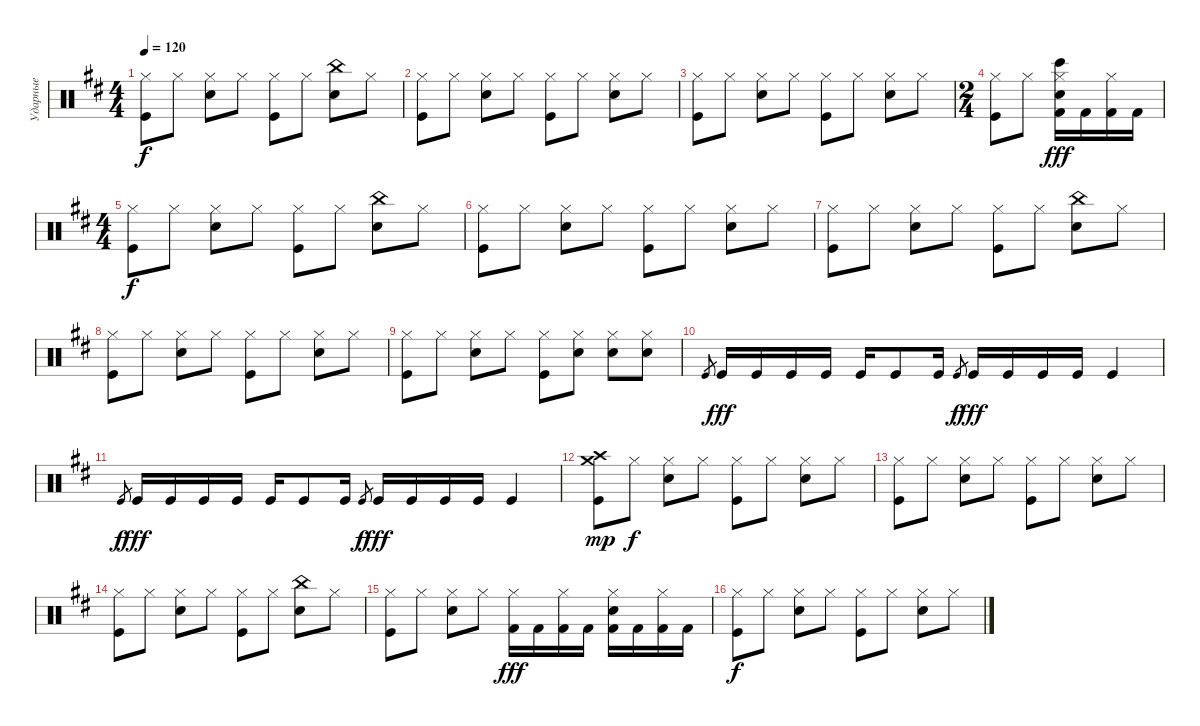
\track ("Ударные" "Ударные") {instrument percussion}
\staff {score}
\articulation defaults
\ts (4 4)
\tempo 120
\clef neutral
\ks bminor
("Hi-Hat (closed)" "Kick (hit)").8{dy f} "Hi-Hat (closed)".8 ("Hi-Hat (closed)" "Snare (hit) 2").8 "Hi-Hat (closed)".8 ("Hi-Hat (closed)" "Kick (hit)").8 "Hi-Hat (closed)".8 ("China (hit)" "Snare (hit) 2").8{balance 14} "Hi-Hat (closed)".8{balance 8} |
("Hi-Hat (closed)" "Kick (hit)").8 "Hi-Hat (closed)".8 ("Hi-Hat (closed)" "Snare (hit) 2").8 "Hi-Hat (closed)".8 ("Hi-Hat (closed)" "Kick (hit)").8 "Hi-Hat (closed)".8 ("Hi-Hat (closed)" "Snare (hit) 2").8 "Hi-Hat (closed)".8 |
("Hi-Hat (closed)" "Kick (hit)").8 "Hi-Hat (closed)".8 ("Hi-Hat (closed)" "Snare (hit) 2").8 "Hi-Hat (closed)".8 ("Hi-Hat (closed)" "Kick (hit)").8 "Hi-Hat (closed)".8 ("Hi-Hat (closed)" "Snare (hit) 2").8 "Hi-Hat (closed)".8 |
\ts (2 4)
("Hi-Hat (closed)" "Kick (hit)").8 "Hi-Hat (closed)".8 ("Hi-Hat (closed)" "Snare (hit) 2" "Bongo High (hit)" "Kick (hit) 2").16{dy fff} "Kick (hit) 2".16 ("Hi-Hat (closed)" "Kick (hit) 2").16 "Kick (hit) 2".16 |
\ts (4 4)
("Hi-Hat (closed)" "Kick (hit)").8{dy f} "Hi-Hat (closed)".8 ("Hi-Hat (closed)" "Snare (hit) 2").8 "Hi-Hat (closed)".8 ("Hi-Hat (closed)" "Kick (hit)").8 "Hi-Hat (closed)".8 ("China (hit)" "Snare (hit) 2").8{balance 14} "Hi-Hat (closed)".8{balance 8} |
("Hi-Hat (closed)" "Kick (hit)").8 "Hi-Hat (closed)".8 ("Hi-Hat (closed)" "Snare (hit) 2").8 "Hi-Hat (closed)".8 ("Hi-Hat (closed)" "Kick (hit)").8 "Hi-Hat (closed)".8 ("Hi-Hat (closed)" "Snare (hit) 2").8 "Hi-Hat (closed)".8 |
("Hi-Hat (closed)" "Kick (hit)").8 "Hi-Hat (closed)".8 ("Hi-Hat (closed)" "Snare (hit) 2").8 "Hi-Hat (closed)".8 ("Hi-Hat (closed)" "Kick (hit)").8 "Hi-Hat (closed)".8 ("China (hit)" "Snare (hit) 2").8 "Hi-Hat (closed)".8 |
("Hi-Hat (closed)" "Kick (hit)").8 "Hi-Hat (closed)".8 ("Hi-Hat (closed)" "Snare (hit) 2").8 "Hi-Hat (closed)".8 ("Hi-Hat (closed)" "Kick (hit)").8 "Hi-Hat (closed)".8 ("Hi-Hat (closed)" "Snare (hit) 2").8 "Hi-Hat (closed)".8 |
\ks d
("Hi-Hat (closed)" "Kick (hit)").8 "Hi-Hat (closed)".8 ("Hi-Hat (closed)" "Snare (hit) 2").8 "Hi-Hat (closed)".8 ("Hi-Hat (closed)" "Kick (hit)").8 ("Hi-Hat (closed)" "Snare (hit) 2").8 ("Hi-Hat (closed)" "Snare (hit) 2").8 ("Hi-Hat (closed)" "Snare (hit) 2").8 |
"Kick (hit)".8{gr} "Kick (hit)".16{dy fff} "Kick (hit)".16 "Kick (hit)".16 "Kick (hit)".16 "Kick (hit)".16 "Kick (hit)".8 "Kick (hit)".16 "Kick (hit)".8{gr dy f} "Kick (hit)".16{dy fff} "Kick (hit)".16 "Kick (hit)".16 "Kick (hit)".16 "Kick (hit)".4 |
"Kick (hit)".8{gr dy f} "Kick (hit)".16{dy fff} "Kick (hit)".16 "Kick (hit)".16 "Kick (hit)".16 "Kick (hit)".16 "Kick (hit)".8 "Kick (hit)".16 "Kick (hit)".8{gr dy f} "Kick (hit)".16{dy fff} "Kick (hit)".16 "Kick (hit)".16 "Kick (hit)".16 "Kick (hit)".4 |
\ks bminor
("Crash medium (hit)" "Kick (hit)" "Crash high (hit)").8{dy mp} "Hi-Hat (closed)".8{dy f} ("Hi-Hat (closed)" "Snare (hit) 2").8 "Hi-Hat (closed)".8 ("Hi-Hat (closed)" "Kick (hit)").8 "Hi-Hat (closed)".8 ("Hi-Hat (closed)" "Snare (hit) 2").8 "Hi-Hat (closed)".8 |
("Hi-Hat (closed)" "Kick (hit)").8 "Hi-Hat (closed)".8 ("Hi-Hat (closed)" "Snare (hit) 2").8 "Hi-Hat (closed)".8 ("Hi-Hat (closed)" "Kick (hit)").8 "Hi-Hat (closed)".8 ("Hi-Hat (closed)" "Snare (hit) 2").8 "Hi-Hat (closed)".8 |
("Hi-Hat (closed)" "Kick (hit)").8 "Hi-Hat (closed)".8 ("Hi-Hat (closed)" "Snare (hit) 2").8 "Hi-Hat (closed)".8 ("Hi-Hat (closed)" "Kick (hit)").8 "Hi-Hat (closed)".8 ("China (hit)" "Snare (hit) 2").8 "Hi-Hat (closed)".8 |
("Hi-Hat (closed)" "Kick (hit)").8 "Hi-Hat (closed)".8 ("Hi-Hat (closed)" "Snare (hit) 2").8 "Hi-Hat (closed)".8 ("Hi-Hat (closed)" "Kick (hit) 2").16{dy fff} "Kick (hit) 2".16 ("Hi-Hat (closed)" "Kick (hit) 2").16 "Kick (hit) 2".16 ("Hi-Hat (closed)" "Snare (hit) 2" "Kick (hit) 2").16 "Kick (hit) 2".16 ("Hi-Hat (closed)" "Kick (hit) 2").16 "Kick (hit) 2".16 |
("Hi-Hat (closed)" "Kick (hit)").8{dy f} "Hi-Hat (closed)".8 ("Hi-Hat (closed)" "Snare (hit) 2").8 "Hi-Hat (closed)".8 ("Hi-Hat (closed)" "Kick (hit)").8 "Hi-Hat (closed)".8 ("Hi-Hat (closed)" "Snare (hit) 2").8 "Hi-Hat (closed)".8
